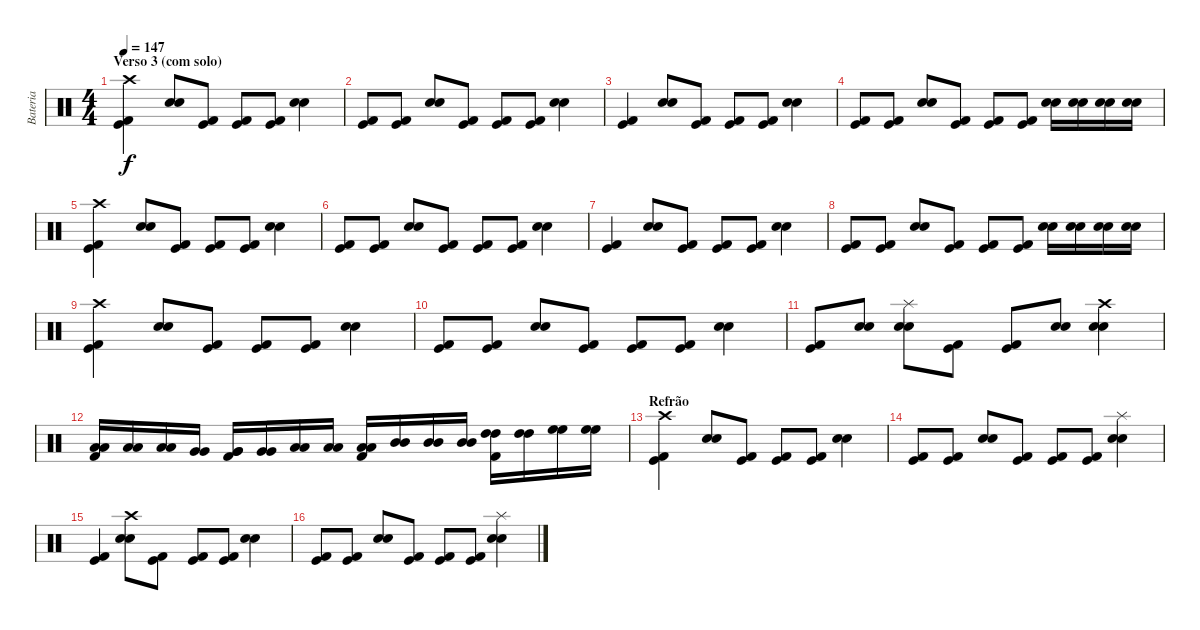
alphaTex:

\track ("Bateria" "Bateria") {instrument percussion}
\staff {score}
\articulation defaults
\ts (4 4)
\section ("" "Verso 3 (com solo)")
\tempo 147
\clef neutral
\ks c
("Crash high (hit)" "Kick (hit)" "Kick (hit) 2").4{dy f} ("Snare (hit) 2" "Electric Snare (hit)").8 ("Kick (hit)" "Kick (hit) 2").8 ("Kick (hit)" "Kick (hit) 2").8 ("Kick (hit)" "Kick (hit) 2").8 ("Snare (hit) 2" "Electric Snare (hit)").4 |
("Kick (hit)" "Kick (hit) 2").8 ("Kick (hit)" "Kick (hit) 2").8 ("Snare (hit) 2" "Electric Snare (hit)").8 ("Kick (hit)" "Kick (hit) 2").8 ("Kick (hit)" "Kick (hit) 2").8 ("Kick (hit)" "Kick (hit) 2").8 ("Snare (hit) 2" "Electric Snare (hit)").4 |
("Kick (hit)" "Kick (hit) 2").4 ("Snare (hit) 2" "Electric Snare (hit)").8 ("Kick (hit)" "Kick (hit) 2").8 ("Kick (hit)" "Kick (hit) 2").8 ("Kick (hit)" "Kick (hit) 2").8 ("Snare (hit) 2" "Electric Snare (hit)").4 |
("Kick (hit)" "Kick (hit) 2").8 ("Kick (hit)" "Kick (hit) 2").8 ("Snare (hit) 2" "Electric Snare (hit)").8 ("Kick (hit)" "Kick (hit) 2").8 ("Kick (hit)" "Kick (hit) 2").8 ("Kick (hit)" "Kick (hit) 2").8 ("Snare (hit) 2" "Electric Snare (hit)").16 ("Snare (hit) 2" "Electric Snare (hit)").16 ("Snare (hit) 2" "Electric Snare (hit)").16 ("Snare (hit) 2" "Electric Snare (hit)").16 |
("Crash high (hit)" "Kick (hit)" "Kick (hit) 2").4 ("Snare (hit) 2" "Electric Snare (hit)").8 ("Kick (hit)" "Kick (hit) 2").8 ("Kick (hit)" "Kick (hit) 2").8 ("Kick (hit)" "Kick (hit) 2").8 ("Snare (hit) 2" "Electric Snare (hit)").4 |
("Kick (hit)" "Kick (hit) 2").8 ("Kick (hit)" "Kick (hit) 2").8 ("Snare (hit) 2" "Electric Snare (hit)").8 ("Kick (hit)" "Kick (hit) 2").8 ("Kick (hit)" "Kick (hit) 2").8 ("Kick (hit)" "Kick (hit) 2").8 ("Snare (hit) 2" "Electric Snare (hit)").4 |
("Kick (hit)" "Kick (hit) 2").4 ("Snare (hit) 2" "Electric Snare (hit)").8 ("Kick (hit)" "Kick (hit) 2").8 ("Kick (hit)" "Kick (hit) 2").8 ("Kick (hit)" "Kick (hit) 2").8 ("Snare (hit) 2" "Electric Snare (hit)").4 |
("Kick (hit)" "Kick (hit) 2").8 ("Kick (hit)" "Kick (hit) 2").8 ("Snare (hit) 2" "Electric Snare (hit)").8 ("Kick (hit)" "Kick (hit) 2").8 ("Kick (hit)" "Kick (hit) 2").8 ("Kick (hit)" "Kick (hit) 2").8 ("Snare (hit) 2" "Electric Snare (hit)").16 ("Snare (hit) 2" "Electric Snare (hit)").16 ("Snare (hit) 2" "Electric Snare (hit)").16 ("Snare (hit) 2" "Electric Snare (hit)").16 |
("Crash high (hit)" "Kick (hit)" "Kick (hit) 2").4 ("Snare (hit) 2" "Electric Snare (hit)").8 ("Kick (hit)" "Kick (hit) 2").8 ("Kick (hit)" "Kick (hit) 2").8 ("Kick (hit)" "Kick (hit) 2").8 ("Snare (hit) 2" "Electric Snare (hit)").4 |
("Kick (hit)" "Kick (hit) 2").8 ("Kick (hit)" "Kick (hit) 2").8 ("Snare (hit) 2" "Electric Snare (hit)").8 ("Kick (hit)" "Kick (hit) 2").8 ("Kick (hit)" "Kick (hit) 2").8 ("Kick (hit)" "Kick (hit) 2").8 ("Snare (hit) 2" "Electric Snare (hit)").4 |
("Kick (hit)" "Kick (hit) 2").8 ("Snare (hit) 2" "Electric Snare (hit)").8 ("Splash (hit)" "Snare (hit) 2" "Electric Snare (hit)").8 ("Kick (hit)" "Kick (hit) 2").8 ("Kick (hit)" "Kick (hit) 2").8 ("Snare (hit) 2" "Electric Snare (hit)").8 ("Crash high (hit)" "Snare (hit) 2" "Electric Snare (hit)").4 |
("Low Floor Tom (hit)" "Low Floor Tom (hit)" "Kick (hit) 2").16 ("Low Floor Tom (hit)" "Low Floor Tom (hit)").16 ("Low Floor Tom (hit)" "Low Floor Tom (hit)").16 ("Very Low Tom (hit)" "Very Low Tom (hit)").16 ("Very Low Tom (hit)" "Very Low Tom (hit)" "Kick (hit) 2").16 ("Very Low Tom (hit)" "Very Low Tom (hit)").16 ("Low Tom (hit)" "Low Tom (hit)").16 ("Low Tom (hit)" "Low Tom (hit)").16 ("Low Tom (hit)" "Low Tom (hit)" "Kick (hit) 2").16 ("Mid Tom (hit)" "Mid Tom (hit)").16 ("Mid Tom (hit)" "Mid Tom (hit)").16 ("Mid Tom (hit)" "Mid Tom (hit)").16 ("High Tom (hit)" "High Tom (hit)" "Kick (hit) 2").16 ("High Tom (hit)" "High Tom (hit)").16 ("High Floor Tom (hit)" "High Floor Tom (hit)").16 ("High Floor Tom (hit)" "High Floor Tom (hit)").16 |
\section ("" "Refrão")
("Crash high (hit)" "Kick (hit)" "Kick (hit) 2").4 ("Snare (hit) 2" "Electric Snare (hit)").8 ("Kick (hit)" "Kick (hit) 2").8 ("Kick (hit)" "Kick (hit) 2").8 ("Kick (hit)" "Kick (hit) 2").8 ("Snare (hit) 2" "Electric Snare (hit)").4 |
("Kick (hit)" "Kick (hit) 2").8 ("Kick (hit)" "Kick (hit) 2").8 ("Snare (hit) 2" "Electric Snare (hit)").8 ("Kick (hit)" "Kick (hit) 2").8 ("Kick (hit)" "Kick (hit) 2").8 ("Kick (hit)" "Kick (hit) 2").8 ("Splash (hit)" "Snare (hit) 2" "Electric Snare (hit)").4 |
("Kick (hit)" "Kick (hit) 2").4 ("Crash high (hit)" "Snare (hit) 2" "Electric Snare (hit)").8 ("Kick (hit)" "Kick (hit) 2").8 ("Kick (hit)" "Kick (hit) 2").8 ("Kick (hit)" "Kick (hit) 2").8 ("Snare (hit) 2" "Electric Snare (hit)").4 |
("Kick (hit)" "Kick (hit) 2").8 ("Kick (hit)" "Kick (hit) 2").8 ("Snare (hit) 2" "Electric Snare (hit)").8 ("Kick (hit)" "Kick (hit) 2").8 ("Kick (hit)" "Kick (hit) 2").8 ("Kick (hit)" "Kick (hit) 2").8 ("Splash (hit)" "Snare (hit) 2" "Electric Snare (hit)").4
